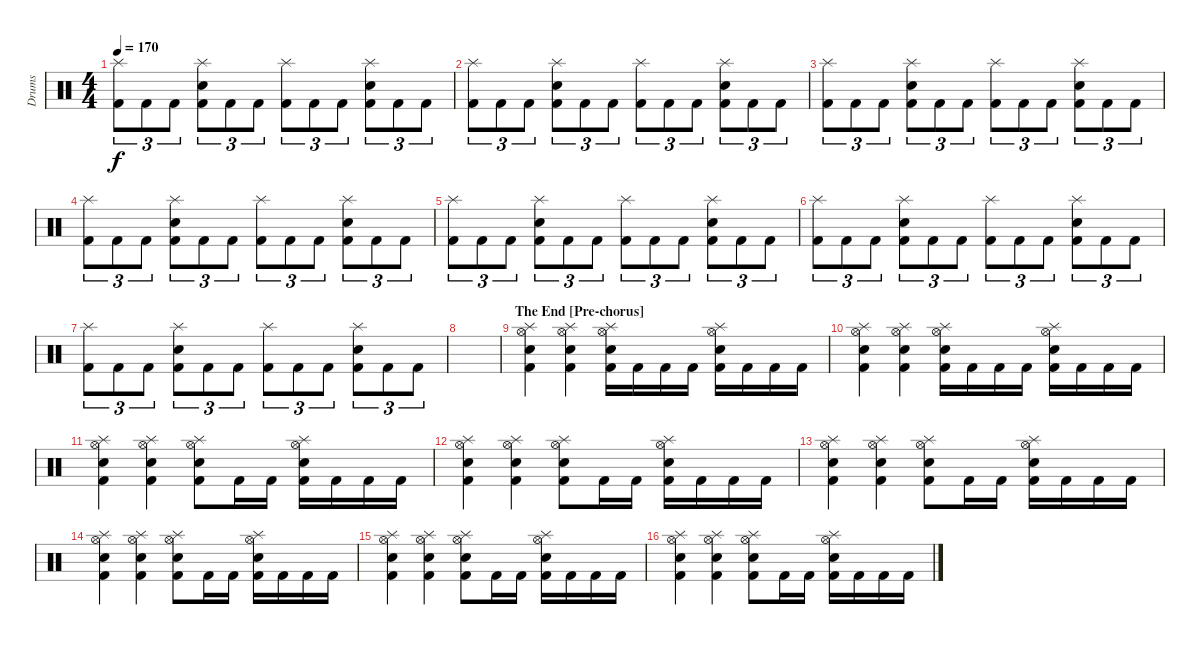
\track ("Drums" "Drums") {instrument percussion}
\staff {score}
\articulation defaults
\ts (4 4)
\tempo 170
\clef neutral
\ks c
("Splash (hit)" "Kick (hit) 2").8{tu (3 2) dy f} "Kick (hit) 2".8{tu (3 2)} "Kick (hit) 2".8{tu (3 2)} ("Splash (hit)" "Electric Snare (hit)" "Kick (hit) 2").8{tu (3 2)} "Kick (hit) 2".8{tu (3 2)} "Kick (hit) 2".8{tu (3 2)} ("Splash (hit)" "Kick (hit) 2").8{tu (3 2)} "Kick (hit) 2".8{tu (3 2)} "Kick (hit) 2".8{tu (3 2)} ("Splash (hit)" "Electric Snare (hit)" "Kick (hit) 2").8{tu (3 2)} "Kick (hit) 2".8{tu (3 2)} "Kick (hit) 2".8{tu (3 2)} |
("Splash (hit)" "Kick (hit) 2").8{tu (3 2)} "Kick (hit) 2".8{tu (3 2)} "Kick (hit) 2".8{tu (3 2)} ("Splash (hit)" "Electric Snare (hit)" "Kick (hit) 2").8{tu (3 2)} "Kick (hit) 2".8{tu (3 2)} "Kick (hit) 2".8{tu (3 2)} ("Splash (hit)" "Kick (hit) 2").8{tu (3 2)} "Kick (hit) 2".8{tu (3 2)} "Kick (hit) 2".8{tu (3 2)} ("Splash (hit)" "Electric Snare (hit)" "Kick (hit) 2").8{tu (3 2)} "Kick (hit) 2".8{tu (3 2)} "Kick (hit) 2".8{tu (3 2)} |
("Splash (hit)" "Kick (hit) 2").8{tu (3 2)} "Kick (hit) 2".8{tu (3 2)} "Kick (hit) 2".8{tu (3 2)} ("Splash (hit)" "Electric Snare (hit)" "Kick (hit) 2").8{tu (3 2)} "Kick (hit) 2".8{tu (3 2)} "Kick (hit) 2".8{tu (3 2)} ("Splash (hit)" "Kick (hit) 2").8{tu (3 2)} "Kick (hit) 2".8{tu (3 2)} "Kick (hit) 2".8{tu (3 2)} ("Splash (hit)" "Electric Snare (hit)" "Kick (hit) 2").8{tu (3 2)} "Kick (hit) 2".8{tu (3 2)} "Kick (hit) 2".8{tu (3 2)} |
("Splash (hit)" "Kick (hit) 2").8{tu (3 2)} "Kick (hit) 2".8{tu (3 2)} "Kick (hit) 2".8{tu (3 2)} ("Splash (hit)" "Electric Snare (hit)" "Kick (hit) 2").8{tu (3 2)} "Kick (hit) 2".8{tu (3 2)} "Kick (hit) 2".8{tu (3 2)} ("Splash (hit)" "Kick (hit) 2").8{tu (3 2)} "Kick (hit) 2".8{tu (3 2)} "Kick (hit) 2".8{tu (3 2)} ("Splash (hit)" "Electric Snare (hit)" "Kick (hit) 2").8{tu (3 2)} "Kick (hit) 2".8{tu (3 2)} "Kick (hit) 2".8{tu (3 2)} |
("Splash (hit)" "Kick (hit) 2").8{tu (3 2)} "Kick (hit) 2".8{tu (3 2)} "Kick (hit) 2".8{tu (3 2)} ("Splash (hit)" "Electric Snare (hit)" "Kick (hit) 2").8{tu (3 2)} "Kick (hit) 2".8{tu (3 2)} "Kick (hit) 2".8{tu (3 2)} ("Splash (hit)" "Kick (hit) 2").8{tu (3 2)} "Kick (hit) 2".8{tu (3 2)} "Kick (hit) 2".8{tu (3 2)} ("Splash (hit)" "Electric Snare (hit)" "Kick (hit) 2").8{tu (3 2)} "Kick (hit) 2".8{tu (3 2)} "Kick (hit) 2".8{tu (3 2)} |
("Splash (hit)" "Kick (hit) 2").8{tu (3 2)} "Kick (hit) 2".8{tu (3 2)} "Kick (hit) 2".8{tu (3 2)} ("Splash (hit)" "Electric Snare (hit)" "Kick (hit) 2").8{tu (3 2)} "Kick (hit) 2".8{tu (3 2)} "Kick (hit) 2".8{tu (3 2)} ("Splash (hit)" "Kick (hit) 2").8{tu (3 2)} "Kick (hit) 2".8{tu (3 2)} "Kick (hit) 2".8{tu (3 2)} ("Splash (hit)" "Electric Snare (hit)" "Kick (hit) 2").8{tu (3 2)} "Kick (hit) 2".8{tu (3 2)} "Kick (hit) 2".8{tu (3 2)} |
("Splash (hit)" "Kick (hit) 2").8{tu (3 2)} "Kick (hit) 2".8{tu (3 2)} "Kick (hit) 2".8{tu (3 2)} ("Splash (hit)" "Electric Snare (hit)" "Kick (hit) 2").8{tu (3 2)} "Kick (hit) 2".8{tu (3 2)} "Kick (hit) 2".8{tu (3 2)} ("Splash (hit)" "Kick (hit) 2").8{tu (3 2)} "Kick (hit) 2".8{tu (3 2)} "Kick (hit) 2".8{tu (3 2)} ("Splash (hit)" "Electric Snare (hit)" "Kick (hit) 2").8{tu (3 2)} "Kick (hit) 2".8{tu (3 2)} "Kick (hit) 2".8{tu (3 2)} |
|
\section ("" "The End [Pre-chorus]")
("Hi-Hat (open)" "Splash (hit)" "Snare (hit) 2" "Kick (hit) 2").4{volume 10} ("Hi-Hat (open)" "Splash (hit)" "Snare (hit) 2" "Kick (hit) 2").4 ("Hi-Hat (open)" "Splash (hit)" "Snare (hit) 2" "Kick (hit) 2").16 "Kick (hit) 2".16 "Kick (hit) 2".16 "Kick (hit) 2".16 ("Hi-Hat (open)" "Splash (hit)" "Snare (hit) 2" "Kick (hit) 2").16 "Kick (hit) 2".16 "Kick (hit) 2".16 "Kick (hit) 2".16 |
("Hi-Hat (open)" "Splash (hit)" "Snare (hit) 2" "Kick (hit) 2").4 ("Hi-Hat (open)" "Splash (hit)" "Snare (hit) 2" "Kick (hit) 2").4 ("Hi-Hat (open)" "Splash (hit)" "Snare (hit) 2" "Kick (hit) 2").16 "Kick (hit) 2".16 "Kick (hit) 2".16 "Kick (hit) 2".16 ("Hi-Hat (open)" "Splash (hit)" "Snare (hit) 2" "Kick (hit) 2").16 "Kick (hit) 2".16 "Kick (hit) 2".16 "Kick (hit) 2".16 |
("Hi-Hat (open)" "Splash (hit)" "Snare (hit) 2" "Kick (hit) 2").4 ("Hi-Hat (open)" "Splash (hit)" "Snare (hit) 2" "Kick (hit) 2").4 ("Hi-Hat (open)" "Splash (hit)" "Snare (hit) 2" "Kick (hit) 2").8 "Kick (hit) 2".16 "Kick (hit) 2".16 ("Hi-Hat (open)" "Splash (hit)" "Snare (hit) 2" "Kick (hit) 2").16 "Kick (hit) 2".16 "Kick (hit) 2".16 "Kick (hit) 2".16 |
("Hi-Hat (open)" "Splash (hit)" "Snare (hit) 2" "Kick (hit) 2").4 ("Hi-Hat (open)" "Splash (hit)" "Snare (hit) 2" "Kick (hit) 2").4 ("Hi-Hat (open)" "Splash (hit)" "Snare (hit) 2" "Kick (hit) 2").8 "Kick (hit) 2".16 "Kick (hit) 2".16 ("Hi-Hat (open)" "Splash (hit)" "Snare (hit) 2" "Kick (hit) 2").16 "Kick (hit) 2".16 "Kick (hit) 2".16 "Kick (hit) 2".16 |
("Hi-Hat (open)" "Splash (hit)" "Snare (hit) 2" "Kick (hit) 2").4 ("Hi-Hat (open)" "Splash (hit)" "Snare (hit) 2" "Kick (hit) 2").4 ("Hi-Hat (open)" "Splash (hit)" "Snare (hit) 2" "Kick (hit) 2").8 "Kick (hit) 2".16 "Kick (hit) 2".16 ("Hi-Hat (open)" "Splash (hit)" "Snare (hit) 2" "Kick (hit) 2").16 "Kick (hit) 2".16 "Kick (hit) 2".16 "Kick (hit) 2".16 |
("Hi-Hat (open)" "Splash (hit)" "Snare (hit) 2" "Kick (hit) 2").4 ("Hi-Hat (open)" "Splash (hit)" "Snare (hit) 2" "Kick (hit) 2").4 ("Hi-Hat (open)" "Splash (hit)" "Snare (hit) 2" "Kick (hit) 2").8 "Kick (hit) 2".16 "Kick (hit) 2".16 ("Hi-Hat (open)" "Splash (hit)" "Snare (hit) 2" "Kick (hit) 2").16 "Kick (hit) 2".16 "Kick (hit) 2".16 "Kick (hit) 2".16 |
("Hi-Hat (open)" "Splash (hit)" "Snare (hit) 2" "Kick (hit) 2").4 ("Hi-Hat (open)" "Splash (hit)" "Snare (hit) 2" "Kick (hit) 2").4 ("Hi-Hat (open)" "Splash (hit)" "Snare (hit) 2" "Kick (hit) 2").8 "Kick (hit) 2".16 "Kick (hit) 2".16 ("Hi-Hat (open)" "Splash (hit)" "Snare (hit) 2" "Kick (hit) 2").16 "Kick (hit) 2".16 "Kick (hit) 2".16 "Kick (hit) 2".16 |
("Hi-Hat (open)" "Splash (hit)" "Snare (hit) 2" "Kick (hit) 2").4 ("Hi-Hat (open)" "Splash (hit)" "Snare (hit) 2" "Kick (hit) 2").4 ("Hi-Hat (open)" "Splash (hit)" "Snare (hit) 2" "Kick (hit) 2").8 "Kick (hit) 2".16 "Kick (hit) 2".16 ("Hi-Hat (open)" "Splash (hit)" "Snare (hit) 2" "Kick (hit) 2").16 "Kick (hit) 2".16 "Kick (hit) 2".16 "Kick (hit) 2".16
